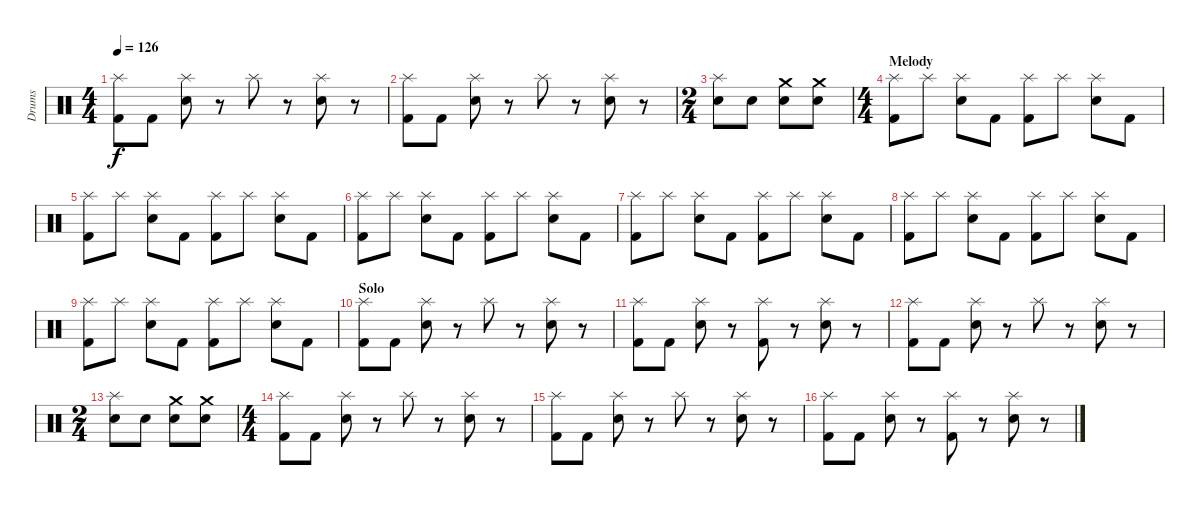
\track ("Drums" "Drums") {instrument percussion}
\staff {score}
\articulation defaults
\ts (4 4)
\tempo 126
\clef neutral
\ks c
("Splash (hit)" "Kick (hit) 2").8{dy f} "Kick (hit) 2".8 ("Splash (hit)" "Snare (hit) 2").8 r.8 "Splash (hit)".8 r.8 ("Splash (hit)" "Snare (hit) 2").8 r.8 |
("Splash (hit)" "Kick (hit) 2").8 "Kick (hit) 2".8 ("Splash (hit)" "Snare (hit) 2").8 r.8 "Splash (hit)".8 r.8 ("Splash (hit)" "Snare (hit) 2").8 r.8 |
\ts (2 4)
("Splash (hit)" "Snare (hit) 2").8 "Snare (hit) 2".8 ("Crash medium (hit)" "Snare (hit) 2").8 ("Crash medium (hit)" "Snare (hit) 2").8 |
\ts (4 4)
\section ("" "Melody")
("Splash (hit)" "Kick (hit) 2").8 "Splash (hit)".8 ("Splash (hit)" "Snare (hit) 2").8 "Kick (hit) 2".8 ("Splash (hit)" "Kick (hit) 2").8 "Splash (hit)".8 ("Splash (hit)" "Snare (hit) 2").8 "Kick (hit) 2".8 |
("Splash (hit)" "Kick (hit) 2").8 "Splash (hit)".8 ("Splash (hit)" "Snare (hit) 2").8 "Kick (hit) 2".8 ("Splash (hit)" "Kick (hit) 2").8 "Splash (hit)".8 ("Splash (hit)" "Snare (hit) 2").8 "Kick (hit) 2".8 |
("Splash (hit)" "Kick (hit) 2").8 "Splash (hit)".8 ("Splash (hit)" "Snare (hit) 2").8 "Kick (hit) 2".8 ("Splash (hit)" "Kick (hit) 2").8 "Splash (hit)".8 ("Splash (hit)" "Snare (hit) 2").8 "Kick (hit) 2".8 |
("Splash (hit)" "Kick (hit) 2").8 "Splash (hit)".8 ("Splash (hit)" "Snare (hit) 2").8 "Kick (hit) 2".8 ("Splash (hit)" "Kick (hit) 2").8 "Splash (hit)".8 ("Splash (hit)" "Snare (hit) 2").8 "Kick (hit) 2".8 |
("Splash (hit)" "Kick (hit) 2").8 "Splash (hit)".8 ("Splash (hit)" "Snare (hit) 2").8 "Kick (hit) 2".8 ("Splash (hit)" "Kick (hit) 2").8 "Splash (hit)".8 ("Splash (hit)" "Snare (hit) 2").8 "Kick (hit) 2".8 |
("Splash (hit)" "Kick (hit) 2").8 "Splash (hit)".8 ("Splash (hit)" "Snare (hit) 2").8 "Kick (hit) 2".8 ("Splash (hit)" "Kick (hit) 2").8 "Splash (hit)".8 ("Splash (hit)" "Snare (hit) 2").8 "Kick (hit) 2".8 |
\section ("" "Solo")
("Splash (hit)" "Kick (hit) 2").8 "Kick (hit) 2".8 ("Splash (hit)" "Snare (hit) 2").8 r.8 "Splash (hit)".8 r.8 ("Splash (hit)" "Snare (hit) 2").8 r.8 |
("Splash (hit)" "Kick (hit) 2").8 "Kick (hit) 2".8 ("Splash (hit)" "Snare (hit) 2").8 r.8 ("Splash (hit)" "Kick (hit) 2").8 r.8 ("Splash (hit)" "Snare (hit) 2").8 r.8 |
("Splash (hit)" "Kick (hit) 2").8 "Kick (hit) 2".8 ("Splash (hit)" "Snare (hit) 2").8 r.8 "Splash (hit)".8 r.8 ("Splash (hit)" "Snare (hit) 2").8 r.8 |
\ts (2 4)
("Splash (hit)" "Snare (hit) 2").8 "Snare (hit) 2".8 ("Crash medium (hit)" "Snare (hit) 2").8 ("Crash medium (hit)" "Snare (hit) 2").8 |
\ts (4 4)
("Splash (hit)" "Kick (hit) 2").8 "Kick (hit) 2".8 ("Splash (hit)" "Snare (hit) 2").8 r.8 "Splash (hit)".8 r.8 ("Splash (hit)" "Snare (hit) 2").8 r.8 |
("Splash (hit)" "Kick (hit) 2").8 "Kick (hit) 2".8 ("Splash (hit)" "Snare (hit) 2").8 r.8 "Splash (hit)".8 r.8 ("Splash (hit)" "Snare (hit) 2").8 r.8 |
("Splash (hit)" "Kick (hit) 2").8 "Kick (hit) 2".8 ("Splash (hit)" "Snare (hit) 2").8 r.8 ("Splash (hit)" "Kick (hit) 2").8 r.8 ("Splash (hit)" "Snare (hit) 2").8 r.8
